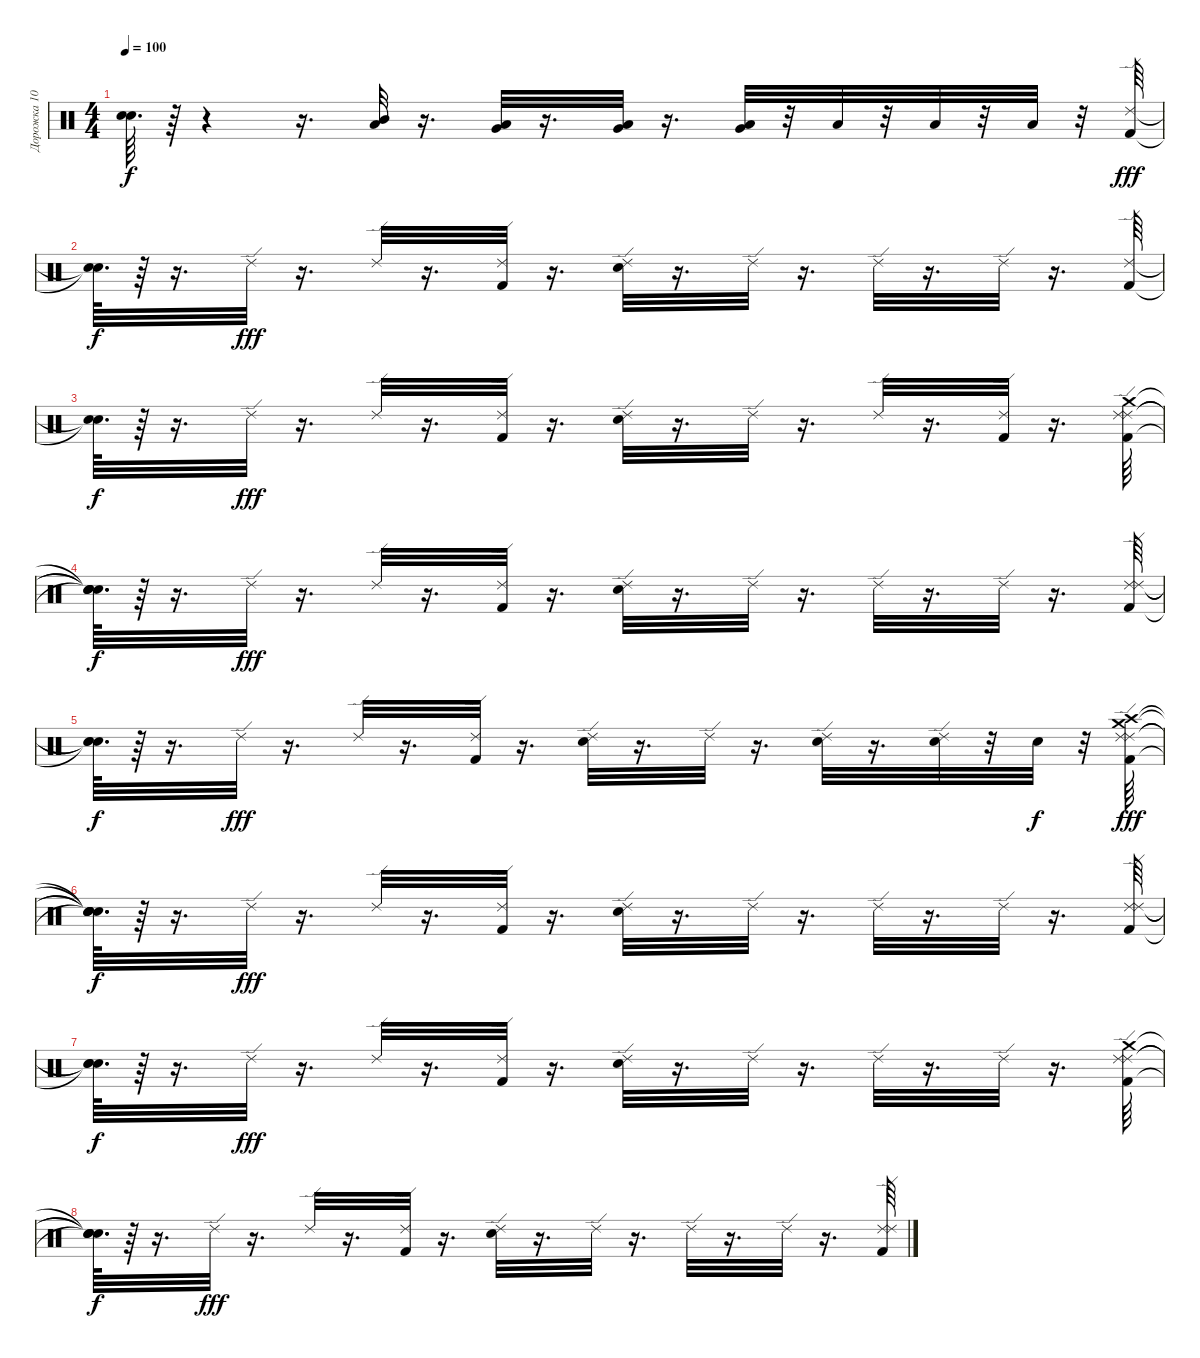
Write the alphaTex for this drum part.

\track ("Дорожка 10" "Дорожка 10") {instrument percussion}
\staff {score}
\articulation defaults
\ts (4 4)
\tempo 100
\clef neutral
\ks c
("Snare (hit)"{t} "Snare (hit)"{t}).64{d dy f} r.64 r.4 r.16{d} ("Low Tom (hit)" "Mid Tom (hit)").32 r.16{d} ("Very Low Tom (hit)" "Low Tom (hit)").32 r.16{d} ("Low Floor Tom (hit)" "Very Low Tom (hit)").32 r.16{d} ("Very Low Tom (hit)" "Low Floor Tom (hit)").32 r.32 "Low Floor Tom (hit)".32 r.32 "Low Floor Tom (hit)".32 r.32 "Low Floor Tom (hit)".32 r.32 ("Kick (hit) 2" "Ride (edge) 2").64{dy fff} |
("Snare (hit)"{t} "Snare (hit)"{t}).64{d dy f} r.64 r.16{d} "Ride (edge) 2".32{dy fff} r.16{d} "Ride (edge) 2".32 r.16{d} ("Kick (hit) 2" "Ride (edge) 2").32 r.16{d} ("Snare (hit) 2" "Ride (edge) 2").32 r.16{d} "Ride (edge) 2".32 r.16{d} "Ride (edge) 2".32 r.16{d} "Ride (edge) 2".32 r.16{d} ("Kick (hit) 2" "Ride (edge) 2").64 |
("Snare (hit)"{t} "Snare (hit)"{t}).64{d dy f} r.64 r.16{d} "Ride (edge) 2".32{dy fff} r.16{d} "Ride (edge) 2".32 r.16{d} ("Kick (hit) 2" "Ride (edge) 2").32 r.16{d} ("Snare (hit) 2" "Ride (edge) 2").32 r.16{d} "Ride (edge) 2".32 r.16{d} "Ride (edge) 2".32 r.16{d} ("Kick (hit) 2" "Ride (edge) 2").32 r.16{d} ("Ride (edge) 2" "Crash medium (hit)" "Kick (hit) 2" "Ride (edge) 2").64 |
("Snare (hit)"{t} "Snare (hit)"{t} "Snare (hit)"{t} "Snare (hit)"{t}).64{d dy f} r.64 r.16{d} "Ride (edge) 2".32{dy fff} r.16{d} "Ride (edge) 2".32 r.16{d} ("Kick (hit) 2" "Ride (edge) 2").32 r.16{d} ("Snare (hit) 2" "Ride (edge) 2").32 r.16{d} "Ride (edge) 2".32 r.16{d} "Ride (edge) 2".32 r.16{d} "Ride (edge) 2".32 r.16{d} ("Ride (edge) 2" "Kick (hit) 2" "Ride (edge) 2").64 |
("Snare (hit)"{t} "Snare (hit)"{t} "Snare (hit)"{t}).64{d dy f} r.64 r.16{d} "Ride (edge) 2".32{dy fff} r.16{d} "Ride (edge) 2".32 r.16{d} ("Kick (hit) 2" "Ride (edge) 2").32 r.16{d} ("Snare (hit) 2" "Ride (edge) 2").32 r.16{d} "Ride (edge) 2".32 r.16{d} ("Snare (hit) 2" "Ride (edge) 2").32 r.16{d} ("Snare (hit) 2" "Ride (edge) 2").32 r.32 "Snare (hit) 2".32{dy f} r.32 ("Ride (edge) 2" "Crash high (hit)" "Crash medium (hit)" "Kick (hit) 2" "Ride (edge) 2").64{dy fff} |
("Snare (hit)"{t} "Snare (hit)"{t} "Snare (hit)"{t} "Snare (hit)"{t} "Snare (hit)"{t}).64{d dy f} r.64 r.16{d} "Ride (edge) 2".32{dy fff} r.16{d} "Ride (edge) 2".32 r.16{d} ("Kick (hit) 2" "Ride (edge) 2").32 r.16{d} ("Snare (hit) 2" "Ride (edge) 2").32 r.16{d} "Ride (edge) 2".32 r.16{d} "Ride (edge) 2".32 r.16{d} "Ride (edge) 2".32 r.16{d} ("Ride (edge) 2" "Kick (hit) 2" "Ride (edge) 2").64 |
("Snare (hit)"{t} "Snare (hit)"{t} "Snare (hit)"{t}).64{d dy f} r.64 r.16{d} "Ride (edge) 2".32{dy fff} r.16{d} "Ride (edge) 2".32 r.16{d} ("Kick (hit) 2" "Ride (edge) 2").32 r.16{d} ("Snare (hit) 2" "Ride (edge) 2").32 r.16{d} "Ride (edge) 2".32 r.16{d} "Ride (edge) 2".32 r.16{d} "Ride (edge) 2".32 r.16{d} ("Ride (edge) 2" "Crash medium (hit)" "Kick (hit) 2" "Ride (edge) 2").64 |
("Snare (hit)"{t} "Snare (hit)"{t} "Snare (hit)"{t} "Snare (hit)"{t}).64{d dy f} r.64 r.16{d} "Ride (edge) 2".32{dy fff} r.16{d} "Ride (edge) 2".32 r.16{d} ("Kick (hit) 2" "Ride (edge) 2").32 r.16{d} ("Snare (hit) 2" "Ride (edge) 2").32 r.16{d} "Ride (edge) 2".32 r.16{d} "Ride (edge) 2".32 r.16{d} "Ride (edge) 2".32 r.16{d} ("Ride (edge) 2" "Kick (hit) 2" "Ride (edge) 2").64
